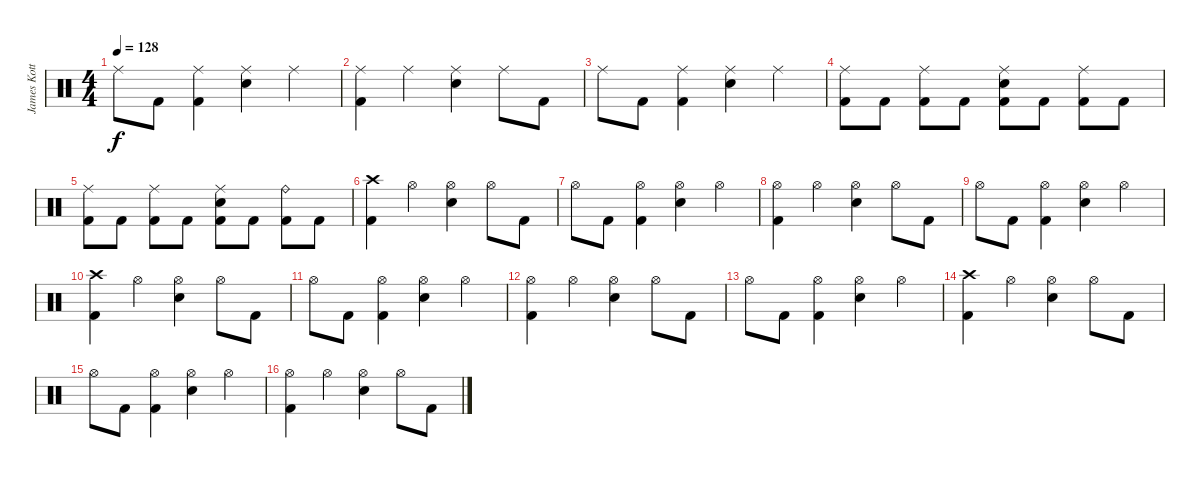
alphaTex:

\track ("James Kottak" "James Kott") {instrument percussion}
\staff {score}
\articulation defaults
\ts (4 4)
\tempo 128
\clef neutral
\ks c "Ride (middle)".8{dy f} "Kick (hit) 2".8
("Ride (middle)" "Kick (hit) 2").4 ("Ride (middle)" "Electric Snare (hit)").4 "Ride (middle)".4 |
("Ride (middle)" "Kick (hit) 2").4 "Ride (middle)".4 ("Ride (middle)" "Electric Snare (hit)").4 "Ride (middle)".8 "Kick (hit) 2".8 |
"Ride (middle)".8 "Kick (hit) 2".8 ("Ride (middle)" "Kick (hit) 2").4 ("Ride (middle)" "Electric Snare (hit)").4 "Ride (middle)".4 |
("Ride (middle)" "Kick (hit) 2").8 "Kick (hit) 2".8 ("Ride (middle)" "Kick (hit) 2").8 "Kick (hit) 2".8 ("Ride (middle)" "Electric Snare (hit)" "Kick (hit) 2").8 "Kick (hit) 2".8 ("Ride (middle)" "Kick (hit) 2").8 "Kick (hit) 2".8 |
("Ride (middle)" "Kick (hit) 2").8 "Kick (hit) 2".8 ("Ride (middle)" "Kick (hit) 2").8 "Kick (hit) 2".8 ("Ride (middle)" "Electric Snare (hit)" "Kick (hit) 2").8 "Kick (hit) 2".8 ("Ride (bell)" "Kick (hit) 2").8 "Kick (hit) 2".8 |
("Crash high (hit)" "Kick (hit) 2").4 "Hi-Hat (open)".4 ("Hi-Hat (open)" "Electric Snare (hit)").4 "Hi-Hat (open)".8 "Kick (hit) 2".8 |
"Hi-Hat (open)".8 "Kick (hit) 2".8 ("Hi-Hat (open)" "Kick (hit) 2").4 ("Hi-Hat (open)" "Electric Snare (hit)").4 "Hi-Hat (open)".4 |
("Hi-Hat (open)" "Kick (hit) 2").4 "Hi-Hat (open)".4 ("Hi-Hat (open)" "Electric Snare (hit)").4 "Hi-Hat (open)".8 "Kick (hit) 2".8 |
"Hi-Hat (open)".8 "Kick (hit) 2".8 ("Hi-Hat (open)" "Kick (hit) 2").4 ("Hi-Hat (open)" "Electric Snare (hit)").4 "Hi-Hat (open)".4 |
("Crash high (hit)" "Kick (hit) 2").4 "Hi-Hat (open)".4 ("Hi-Hat (open)" "Electric Snare (hit)").4 "Hi-Hat (open)".8 "Kick (hit) 2".8 |
"Hi-Hat (open)".8 "Kick (hit) 2".8 ("Hi-Hat (open)" "Kick (hit) 2").4 ("Hi-Hat (open)" "Electric Snare (hit)").4 "Hi-Hat (open)".4 |
("Hi-Hat (open)" "Kick (hit) 2").4 "Hi-Hat (open)".4 ("Hi-Hat (open)" "Electric Snare (hit)").4 "Hi-Hat (open)".8 "Kick (hit) 2".8 |
"Hi-Hat (open)".8 "Kick (hit) 2".8 ("Hi-Hat (open)" "Kick (hit) 2").4 ("Hi-Hat (open)" "Electric Snare (hit)").4 "Hi-Hat (open)".4 |
("Crash high (hit)" "Kick (hit) 2").4 "Hi-Hat (open)".4 ("Hi-Hat (open)" "Electric Snare (hit)").4 "Hi-Hat (open)".8 "Kick (hit) 2".8 |
"Hi-Hat (open)".8 "Kick (hit) 2".8 ("Hi-Hat (open)" "Kick (hit) 2").4 ("Hi-Hat (open)" "Electric Snare (hit)").4 "Hi-Hat (open)".4 |
("Hi-Hat (open)" "Kick (hit) 2").4 "Hi-Hat (open)".4 ("Hi-Hat (open)" "Electric Snare (hit)").4 "Hi-Hat (open)".8 "Kick (hit) 2".8
